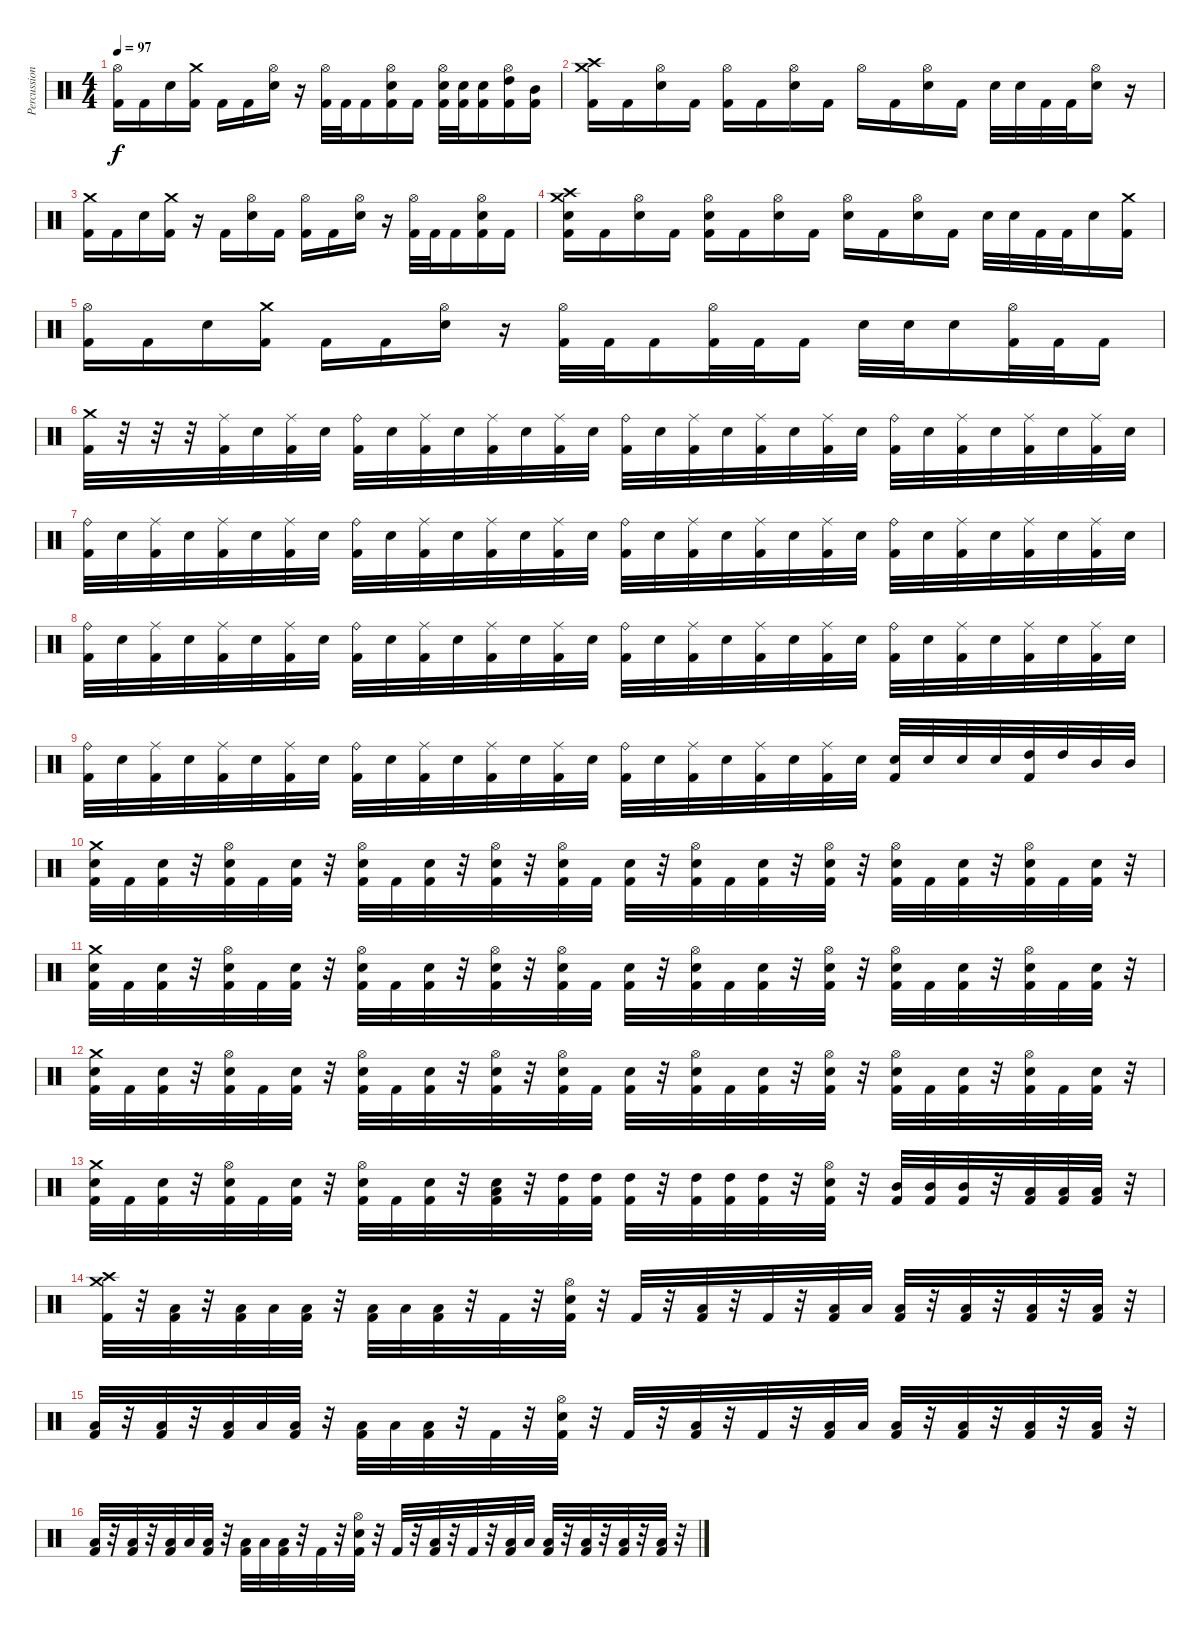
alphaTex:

\track ("Percussion" "Percussion") {instrument percussion}
\staff {score}
\articulation defaults
\ts (4 4)
\tempo 97
\clef neutral
\ks c
("Hi-Hat (open)" "Kick (hit) 2").16{dy f} "Kick (hit) 2".16 "Electric Snare (hit)".16 ("Crash medium (hit)" "Kick (hit) 2").16 "Kick (hit) 2".16 "Kick (hit) 2".16 ("Hi-Hat (open)" "Electric Snare (hit)").16 r.16 ("Hi-Hat (open)" "Kick (hit) 2").32 "Kick (hit) 2".32 "Kick (hit) 2".16 ("Hi-Hat (open)" "Electric Snare (hit)" "Kick (hit) 2").16 "Kick (hit) 2".16 ("Hi-Hat (open)" "Electric Snare (hit)" "Kick (hit) 2").32 ("Electric Snare (hit)" "Kick (hit) 2").32 ("Electric Snare (hit)" "Kick (hit) 2").16 ("Hi-Hat (open)" "High Tom (hit)" "Kick (hit) 2").16 ("Mid Tom (hit)" "Kick (hit) 2").16 |
("Crash medium (hit)" "Crash high (hit)" "Kick (hit) 2").16 "Kick (hit) 2".16 ("Hi-Hat (open)" "Electric Snare (hit)").16 "Kick (hit) 2".16 ("Hi-Hat (open)" "Kick (hit) 2").16 "Kick (hit) 2".16 ("Hi-Hat (open)" "Electric Snare (hit)").16 "Kick (hit) 2".16 "Hi-Hat (open)".16 "Kick (hit) 2".16 ("Hi-Hat (open)" "Electric Snare (hit)").16 "Kick (hit) 2".16 "Electric Snare (hit)".32 "Electric Snare (hit)".32 "Kick (hit) 2".32 "Kick (hit) 2".32 ("Hi-Hat (open)" "Electric Snare (hit)").16 r.16 |
("Crash medium (hit)" "Kick (hit) 2").16 "Kick (hit) 2".16 "Electric Snare (hit)".16 ("Crash medium (hit)" "Kick (hit) 2").16 r.16 "Kick (hit) 2".16 ("Hi-Hat (open)" "Electric Snare (hit)").16 "Kick (hit) 2".16 ("Hi-Hat (open)" "Kick (hit) 2").16 "Kick (hit) 2".16 ("Hi-Hat (open)" "Electric Snare (hit)").16 r.16 ("Hi-Hat (open)" "Kick (hit) 2").32 "Kick (hit) 2".32 "Kick (hit) 2".16 ("Hi-Hat (open)" "Electric Snare (hit)" "Kick (hit) 2").16 "Kick (hit) 2".16 |
("Crash medium (hit)" "Crash high (hit)" "Electric Snare (hit)" "Kick (hit) 2").16 "Kick (hit) 2".16 ("Hi-Hat (open)" "Electric Snare (hit)").16 "Kick (hit) 2".16 ("Hi-Hat (open)" "Electric Snare (hit)" "Kick (hit) 2").16 "Kick (hit) 2".16 ("Hi-Hat (open)" "Electric Snare (hit)").16 "Kick (hit) 2".16 ("Hi-Hat (open)" "Electric Snare (hit)").16 "Kick (hit) 2".16 ("Hi-Hat (open)" "Electric Snare (hit)").16 "Kick (hit) 2".16 "Electric Snare (hit)".32 "Electric Snare (hit)".32 "Kick (hit) 2".32 "Kick (hit) 2".32 "Electric Snare (hit)".16 ("Crash medium (hit)" "Kick (hit) 2").16 |
("Hi-Hat (open)" "Kick (hit) 2").16 "Kick (hit) 2".16 "Electric Snare (hit)".16 ("Crash medium (hit)" "Kick (hit) 2").16 "Kick (hit) 2".16 "Kick (hit) 2".16 ("Hi-Hat (open)" "Electric Snare (hit)").16 r.16 ("Hi-Hat (open)" "Kick (hit) 2").32 "Kick (hit) 2".32 "Kick (hit) 2".16 ("Hi-Hat (open)" "Kick (hit) 2").32 "Kick (hit) 2".32 "Kick (hit) 2".16 "Electric Snare (hit)".32 "Electric Snare (hit)".32 "Electric Snare (hit)".16 ("Hi-Hat (open)" "Kick (hit) 2").32 "Kick (hit) 2".32 "Kick (hit) 2".16 |
("Crash medium (hit)" "Kick (hit) 2").32 r.32 r.32 r.32 ("Ride (middle)" "Kick (hit) 2").32 "Electric Snare (hit)".32 ("Ride (middle)" "Kick (hit) 2").32 "Electric Snare (hit)".32 ("Ride (bell)" "Kick (hit) 2").32 "Electric Snare (hit)".32 ("Ride (middle)" "Kick (hit) 2").32 "Electric Snare (hit)".32 ("Ride (middle)" "Kick (hit) 2").32 "Electric Snare (hit)".32 ("Ride (middle)" "Kick (hit) 2").32 "Electric Snare (hit)".32 ("Ride (bell)" "Kick (hit) 2").32 "Electric Snare (hit)".32 ("Ride (middle)" "Kick (hit) 2").32 "Electric Snare (hit)".32 ("Ride (middle)" "Kick (hit) 2").32 "Electric Snare (hit)".32 ("Ride (middle)" "Kick (hit) 2").32 "Electric Snare (hit)".32 ("Ride (bell)" "Kick (hit) 2").32 "Electric Snare (hit)".32 ("Ride (middle)" "Kick (hit) 2").32 "Electric Snare (hit)".32 ("Ride (middle)" "Kick (hit) 2").32 "Electric Snare (hit)".32 ("Ride (middle)" "Kick (hit) 2").32 "Electric Snare (hit)".32 |
("Ride (bell)" "Kick (hit) 2").32 "Electric Snare (hit)".32 ("Ride (middle)" "Kick (hit) 2").32 "Electric Snare (hit)".32 ("Ride (middle)" "Kick (hit) 2").32 "Electric Snare (hit)".32 ("Ride (middle)" "Kick (hit) 2").32 "Electric Snare (hit)".32 ("Ride (bell)" "Kick (hit) 2").32 "Electric Snare (hit)".32 ("Ride (middle)" "Kick (hit) 2").32 "Electric Snare (hit)".32 ("Ride (middle)" "Kick (hit) 2").32 "Electric Snare (hit)".32 ("Ride (middle)" "Kick (hit) 2").32 "Electric Snare (hit)".32 ("Ride (bell)" "Kick (hit) 2").32 "Electric Snare (hit)".32 ("Ride (middle)" "Kick (hit) 2").32 "Electric Snare (hit)".32 ("Ride (middle)" "Kick (hit) 2").32 "Electric Snare (hit)".32 ("Ride (middle)" "Kick (hit) 2").32 "Electric Snare (hit)".32 ("Ride (bell)" "Kick (hit) 2").32 "Electric Snare (hit)".32 ("Ride (middle)" "Kick (hit) 2").32 "Electric Snare (hit)".32 ("Ride (middle)" "Kick (hit) 2").32 "Electric Snare (hit)".32 ("Ride (middle)" "Kick (hit) 2").32 "Electric Snare (hit)".32 |
("Ride (bell)" "Kick (hit) 2").32 "Electric Snare (hit)".32 ("Ride (middle)" "Kick (hit) 2").32 "Electric Snare (hit)".32 ("Ride (middle)" "Kick (hit) 2").32 "Electric Snare (hit)".32 ("Ride (middle)" "Kick (hit) 2").32 "Electric Snare (hit)".32 ("Ride (bell)" "Kick (hit) 2").32 "Electric Snare (hit)".32 ("Ride (middle)" "Kick (hit) 2").32 "Electric Snare (hit)".32 ("Ride (middle)" "Kick (hit) 2").32 "Electric Snare (hit)".32 ("Ride (middle)" "Kick (hit) 2").32 "Electric Snare (hit)".32 ("Ride (bell)" "Kick (hit) 2").32 "Electric Snare (hit)".32 ("Ride (middle)" "Kick (hit) 2").32 "Electric Snare (hit)".32 ("Ride (middle)" "Kick (hit) 2").32 "Electric Snare (hit)".32 ("Ride (middle)" "Kick (hit) 2").32 "Electric Snare (hit)".32 ("Ride (bell)" "Kick (hit) 2").32 "Electric Snare (hit)".32 ("Ride (middle)" "Kick (hit) 2").32 "Electric Snare (hit)".32 ("Ride (middle)" "Kick (hit) 2").32 "Electric Snare (hit)".32 ("Ride (middle)" "Kick (hit) 2").32 "Electric Snare (hit)".32 |
("Ride (bell)" "Kick (hit) 2").32 "Electric Snare (hit)".32 ("Ride (middle)" "Kick (hit) 2").32 "Electric Snare (hit)".32 ("Ride (middle)" "Kick (hit) 2").32 "Electric Snare (hit)".32 ("Ride (middle)" "Kick (hit) 2").32 "Electric Snare (hit)".32 ("Ride (bell)" "Kick (hit) 2").32 "Electric Snare (hit)".32 ("Ride (middle)" "Kick (hit) 2").32 "Electric Snare (hit)".32 ("Ride (middle)" "Kick (hit) 2").32 "Electric Snare (hit)".32 ("Ride (middle)" "Kick (hit) 2").32 "Electric Snare (hit)".32 ("Ride (bell)" "Kick (hit) 2").32 "Electric Snare (hit)".32 ("Ride (middle)" "Kick (hit) 2").32 "Electric Snare (hit)".32 ("Ride (middle)" "Kick (hit) 2").32 "Electric Snare (hit)".32 ("Ride (middle)" "Kick (hit) 2").32 "Electric Snare (hit)".32 ("Kick (hit) 2" "Electric Snare (hit)").32 "Electric Snare (hit)".32 "Electric Snare (hit)".32 "Electric Snare (hit)".32 ("Kick (hit) 2" "High Tom (hit)").32 "High Tom (hit)".32 "Mid Tom (hit)".32 "Mid Tom (hit)".32 |
("Crash medium (hit)" "Electric Snare (hit)" "Kick (hit) 2").32 "Kick (hit) 2".32 ("Electric Snare (hit)" "Kick (hit) 2").32 r.32 ("Hi-Hat (open)" "Electric Snare (hit)" "Kick (hit) 2").32 "Kick (hit) 2".32 ("Electric Snare (hit)" "Kick (hit) 2").32 r.32 ("Hi-Hat (open)" "Electric Snare (hit)" "Kick (hit) 2").32 "Kick (hit) 2".32 ("Electric Snare (hit)" "Kick (hit) 2").32 r.32 ("Hi-Hat (open)" "Electric Snare (hit)" "Kick (hit) 2").32 r.32 ("Hi-Hat (open)" "Electric Snare (hit)" "Kick (hit) 2").32 "Kick (hit) 2".32 ("Electric Snare (hit)" "Kick (hit) 2").32 r.32 ("Hi-Hat (open)" "Electric Snare (hit)" "Kick (hit) 2").32 "Kick (hit) 2".32 ("Electric Snare (hit)" "Kick (hit) 2").32 r.32 ("Hi-Hat (open)" "Electric Snare (hit)" "Kick (hit) 2").32 r.32 ("Hi-Hat (open)" "Electric Snare (hit)" "Kick (hit) 2").32 "Kick (hit) 2".32 ("Electric Snare (hit)" "Kick (hit) 2").32 r.32 ("Hi-Hat (open)" "Electric Snare (hit)" "Kick (hit) 2").32 "Kick (hit) 2".32 ("Electric Snare (hit)" "Kick (hit) 2").32 r.32 |
("Crash medium (hit)" "Electric Snare (hit)" "Kick (hit) 2").32 "Kick (hit) 2".32 ("Electric Snare (hit)" "Kick (hit) 2").32 r.32 ("Hi-Hat (open)" "Electric Snare (hit)" "Kick (hit) 2").32 "Kick (hit) 2".32 ("Electric Snare (hit)" "Kick (hit) 2").32 r.32 ("Hi-Hat (open)" "Electric Snare (hit)" "Kick (hit) 2").32 "Kick (hit) 2".32 ("Electric Snare (hit)" "Kick (hit) 2").32 r.32 ("Hi-Hat (open)" "Electric Snare (hit)" "Kick (hit) 2").32 r.32 ("Hi-Hat (open)" "Electric Snare (hit)" "Kick (hit) 2").32 "Kick (hit) 2".32 ("Electric Snare (hit)" "Kick (hit) 2").32 r.32 ("Hi-Hat (open)" "Electric Snare (hit)" "Kick (hit) 2").32 "Kick (hit) 2".32 ("Electric Snare (hit)" "Kick (hit) 2").32 r.32 ("Hi-Hat (open)" "Electric Snare (hit)" "Kick (hit) 2").32 r.32 ("Hi-Hat (open)" "Electric Snare (hit)" "Kick (hit) 2").32 "Kick (hit) 2".32 ("Electric Snare (hit)" "Kick (hit) 2").32 r.32 ("Hi-Hat (open)" "Electric Snare (hit)" "Kick (hit) 2").32 "Kick (hit) 2".32 ("Electric Snare (hit)" "Kick (hit) 2").32 r.32 |
("Crash medium (hit)" "Electric Snare (hit)" "Kick (hit) 2").32 "Kick (hit) 2".32 ("Electric Snare (hit)" "Kick (hit) 2").32 r.32 ("Hi-Hat (open)" "Electric Snare (hit)" "Kick (hit) 2").32 "Kick (hit) 2".32 ("Electric Snare (hit)" "Kick (hit) 2").32 r.32 ("Hi-Hat (open)" "Electric Snare (hit)" "Kick (hit) 2").32 "Kick (hit) 2".32 ("Electric Snare (hit)" "Kick (hit) 2").32 r.32 ("Hi-Hat (open)" "Electric Snare (hit)" "Kick (hit) 2").32 r.32 ("Hi-Hat (open)" "Electric Snare (hit)" "Kick (hit) 2").32 "Kick (hit) 2".32 ("Electric Snare (hit)" "Kick (hit) 2").32 r.32 ("Hi-Hat (open)" "Electric Snare (hit)" "Kick (hit) 2").32 "Kick (hit) 2".32 ("Electric Snare (hit)" "Kick (hit) 2").32 r.32 ("Hi-Hat (open)" "Electric Snare (hit)" "Kick (hit) 2").32 r.32 ("Hi-Hat (open)" "Electric Snare (hit)" "Kick (hit) 2").32 "Kick (hit) 2".32 ("Electric Snare (hit)" "Kick (hit) 2").32 r.32 ("Hi-Hat (open)" "Electric Snare (hit)" "Kick (hit) 2").32 "Kick (hit) 2".32 ("Electric Snare (hit)" "Kick (hit) 2").32 r.32 |
("Crash medium (hit)" "Electric Snare (hit)" "Kick (hit) 2").32 "Kick (hit) 2".32 ("Electric Snare (hit)" "Kick (hit) 2").32 r.32 ("Hi-Hat (open)" "Electric Snare (hit)" "Kick (hit) 2").32 "Kick (hit) 2".32 ("Electric Snare (hit)" "Kick (hit) 2").32 r.32 ("Hi-Hat (open)" "Electric Snare (hit)" "Kick (hit) 2").32 "Kick (hit) 2".32 ("Electric Snare (hit)" "Kick (hit) 2").32 r.32 ("Low Tom (hit)" "Electric Snare (hit)" "Kick (hit) 2").32 r.32 ("High Tom (hit)" "Kick (hit) 2").32 ("High Tom (hit)" "Kick (hit) 2").32 ("High Tom (hit)" "Kick (hit) 2").32 r.32 ("High Tom (hit)" "Kick (hit) 2").32 ("High Tom (hit)" "Kick (hit) 2").32 ("High Tom (hit)" "Kick (hit) 2").32 r.32 ("Hi-Hat (open)" "Electric Snare (hit)" "Kick (hit) 2").32 r.32 ("Mid Tom (hit)" "Kick (hit) 2").32 ("Mid Tom (hit)" "Kick (hit) 2").32 ("Mid Tom (hit)" "Kick (hit) 2").32 r.32 ("Low Tom (hit)" "Kick (hit) 2").32 ("Low Tom (hit)" "Kick (hit) 2").32 ("Low Tom (hit)" "Kick (hit) 2").32 r.32 |
("Crash medium (hit)" "Crash high (hit)" "Kick (hit) 2").32 r.32 ("Low Tom (hit)" "Kick (hit) 2").32 r.32 ("Low Tom (hit)" "Kick (hit) 2").32 "Low Tom (hit)".32 ("Low Tom (hit)" "Kick (hit) 2").32 r.32 ("Low Tom (hit)" "Kick (hit) 2").32 "Low Tom (hit)".32 ("Low Tom (hit)" "Kick (hit) 2").32 r.32 "Kick (hit) 2".32 r.32 ("Hi-Hat (open)" "Electric Snare (hit)" "Kick (hit) 2").32 r.32 "Kick (hit) 2".32 r.32 ("Low Tom (hit)" "Kick (hit) 2").32 r.32 "Kick (hit) 2".32 r.32 ("Low Tom (hit)" "Kick (hit) 2").32 "Low Tom (hit)".32 ("Low Tom (hit)" "Kick (hit) 2").32 r.32 ("Low Tom (hit)" "Kick (hit) 2").32 r.32 ("Low Tom (hit)" "Kick (hit) 2").32 r.32 ("Low Tom (hit)" "Kick (hit) 2").32 r.32 |
("Low Tom (hit)" "Kick (hit) 2").32 r.32 ("Low Tom (hit)" "Kick (hit) 2").32 r.32 ("Low Tom (hit)" "Kick (hit) 2").32 "Low Tom (hit)".32 ("Low Tom (hit)" "Kick (hit) 2").32 r.32 ("Low Tom (hit)" "Kick (hit) 2").32 "Low Tom (hit)".32 ("Low Tom (hit)" "Kick (hit) 2").32 r.32 "Kick (hit) 2".32 r.32 ("Hi-Hat (open)" "Electric Snare (hit)" "Kick (hit) 2").32 r.32 "Kick (hit) 2".32 r.32 ("Low Tom (hit)" "Kick (hit) 2").32 r.32 "Kick (hit) 2".32 r.32 ("Low Tom (hit)" "Kick (hit) 2").32 "Low Tom (hit)".32 ("Low Tom (hit)" "Kick (hit) 2").32 r.32 ("Low Tom (hit)" "Kick (hit) 2").32 r.32 ("Low Tom (hit)" "Kick (hit) 2").32 r.32 ("Low Tom (hit)" "Kick (hit) 2").32 r.32 |
("Low Tom (hit)" "Kick (hit) 2").32 r.32 ("Low Tom (hit)" "Kick (hit) 2").32 r.32 ("Low Tom (hit)" "Kick (hit) 2").32 "Low Tom (hit)".32 ("Low Tom (hit)" "Kick (hit) 2").32 r.32 ("Low Tom (hit)" "Kick (hit) 2").32 "Low Tom (hit)".32 ("Low Tom (hit)" "Kick (hit) 2").32 r.32 "Kick (hit) 2".32 r.32 ("Hi-Hat (open)" "Electric Snare (hit)" "Kick (hit) 2").32 r.32 "Kick (hit) 2".32 r.32 ("Low Tom (hit)" "Kick (hit) 2").32 r.32 "Kick (hit) 2".32 r.32 ("Low Tom (hit)" "Kick (hit) 2").32 "Low Tom (hit)".32 ("Low Tom (hit)" "Kick (hit) 2").32 r.32 ("Low Tom (hit)" "Kick (hit) 2").32 r.32 ("Low Tom (hit)" "Kick (hit) 2").32 r.32 ("Low Tom (hit)" "Kick (hit) 2").32 r.32
